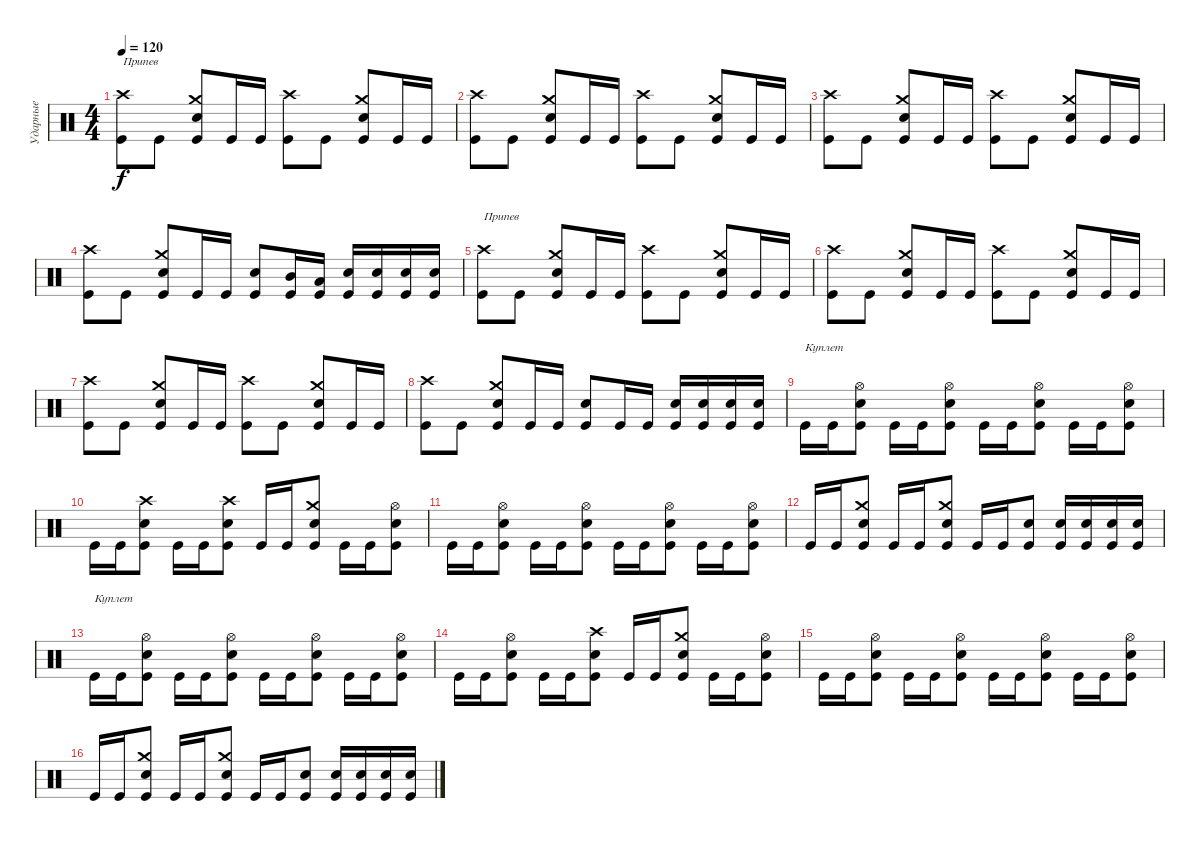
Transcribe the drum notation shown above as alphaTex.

\track ("Ударные" "Ударные") {instrument percussion}
\staff {score}
\articulation defaults
\ts (4 4)
\tempo 120
\clef neutral
\ks c
("Crash high (hit)" "Kick (hit)").8{txt "Припев" dy f} "Kick (hit)".8 ("Crash medium (hit)" "Snare (hit) 2" "Kick (hit)").8 "Kick (hit)".16 "Kick (hit)".16 ("Crash high (hit)" "Kick (hit)").8 "Kick (hit)".8 ("Crash medium (hit)" "Snare (hit) 2" "Kick (hit)").8 "Kick (hit)".16 "Kick (hit)".16 |
("Crash high (hit)" "Kick (hit)").8 "Kick (hit)".8 ("Crash medium (hit)" "Snare (hit) 2" "Kick (hit)").8 "Kick (hit)".16 "Kick (hit)".16 ("Crash high (hit)" "Kick (hit)").8 "Kick (hit)".8 ("Crash medium (hit)" "Snare (hit) 2" "Kick (hit)").8 "Kick (hit)".16 "Kick (hit)".16 |
("Crash high (hit)" "Kick (hit)").8 "Kick (hit)".8 ("Crash medium (hit)" "Snare (hit) 2" "Kick (hit)").8 "Kick (hit)".16 "Kick (hit)".16 ("Crash high (hit)" "Kick (hit)").8 "Kick (hit)".8 ("Crash medium (hit)" "Snare (hit) 2" "Kick (hit)").8 "Kick (hit)".16 "Kick (hit)".16 |
("Crash high (hit)" "Kick (hit)").8 "Kick (hit)".8 ("Crash medium (hit)" "Snare (hit) 2" "Kick (hit)").8 "Kick (hit)".16 "Kick (hit)".16 ("Snare (hit) 2" "Kick (hit)").8 ("Mid Tom (hit)" "Kick (hit)").16 ("Low Tom (hit)" "Kick (hit)").16 ("Snare (hit) 2" "Kick (hit)").16 ("Snare (hit) 2" "Kick (hit)").16 ("Snare (hit) 2" "Kick (hit)").16 ("Snare (hit) 2" "Kick (hit)").16 |
("Crash high (hit)" "Kick (hit)").8{txt "Припев"} "Kick (hit)".8 ("Crash medium (hit)" "Snare (hit) 2" "Kick (hit)").8 "Kick (hit)".16 "Kick (hit)".16 ("Crash high (hit)" "Kick (hit)").8 "Kick (hit)".8 ("Crash medium (hit)" "Snare (hit) 2" "Kick (hit)").8 "Kick (hit)".16 "Kick (hit)".16 |
("Crash high (hit)" "Kick (hit)").8 "Kick (hit)".8 ("Crash medium (hit)" "Snare (hit) 2" "Kick (hit)").8 "Kick (hit)".16 "Kick (hit)".16 ("Crash high (hit)" "Kick (hit)").8 "Kick (hit)".8 ("Crash medium (hit)" "Snare (hit) 2" "Kick (hit)").8 "Kick (hit)".16 "Kick (hit)".16 |
("Crash high (hit)" "Kick (hit)").8 "Kick (hit)".8 ("Crash medium (hit)" "Snare (hit) 2" "Kick (hit)").8 "Kick (hit)".16 "Kick (hit)".16 ("Crash high (hit)" "Kick (hit)").8 "Kick (hit)".8 ("Crash medium (hit)" "Snare (hit) 2" "Kick (hit)").8 "Kick (hit)".16 "Kick (hit)".16 |
("Crash high (hit)" "Kick (hit)").8 "Kick (hit)".8 ("Crash medium (hit)" "Snare (hit) 2" "Kick (hit)").8 "Kick (hit)".16 "Kick (hit)".16 ("Snare (hit) 2" "Kick (hit)").8 "Kick (hit)".16 "Kick (hit)".16 ("Snare (hit) 2" "Kick (hit)").16 ("Snare (hit) 2" "Kick (hit)").16 ("Snare (hit) 2" "Kick (hit)").16 ("Snare (hit) 2" "Kick (hit)").16 |
"Kick (hit)".16{txt "Куплет"} "Kick (hit)".16 ("Hi-Hat (open)" "Snare (hit) 2" "Kick (hit)").8 "Kick (hit)".16 "Kick (hit)".16 ("Hi-Hat (open)" "Snare (hit) 2" "Kick (hit)").8 "Kick (hit)".16 "Kick (hit)".16 ("Hi-Hat (open)" "Snare (hit) 2" "Kick (hit)").8 "Kick (hit)".16 "Kick (hit)".16 ("Hi-Hat (open)" "Snare (hit) 2" "Kick (hit)").8 |
"Kick (hit)".16 "Kick (hit)".16 ("Crash high (hit)" "Snare (hit) 2" "Kick (hit)").8 "Kick (hit)".16 "Kick (hit)".16 ("Crash high (hit)" "Snare (hit) 2" "Kick (hit)").8 "Kick (hit)".16 "Kick (hit)".16 ("Crash medium (hit)" "Snare (hit) 2" "Kick (hit)").8 "Kick (hit)".16 "Kick (hit)".16 ("Hi-Hat (open)" "Snare (hit) 2" "Kick (hit)").8 |
"Kick (hit)".16 "Kick (hit)".16 ("Hi-Hat (open)" "Snare (hit) 2" "Kick (hit)").8 "Kick (hit)".16 "Kick (hit)".16 ("Hi-Hat (open)" "Snare (hit) 2" "Kick (hit)").8 "Kick (hit)".16 "Kick (hit)".16 ("Hi-Hat (open)" "Snare (hit) 2" "Kick (hit)").8 "Kick (hit)".16 "Kick (hit)".16 ("Hi-Hat (open)" "Snare (hit) 2" "Kick (hit)").8 |
"Kick (hit)".16 "Kick (hit)".16 ("Crash medium (hit)" "Snare (hit) 2" "Kick (hit)").8 "Kick (hit)".16 "Kick (hit)".16 ("Crash medium (hit)" "Snare (hit) 2" "Kick (hit)").8 "Kick (hit)".16 "Kick (hit)".16 ("Snare (hit) 2" "Kick (hit)").8 ("Snare (hit) 2" "Kick (hit)").16 ("Snare (hit) 2" "Kick (hit)").16 ("Snare (hit) 2" "Kick (hit)").16 ("Snare (hit) 2" "Kick (hit)").16 |
"Kick (hit)".16{txt "Куплет"} "Kick (hit)".16 ("Hi-Hat (open)" "Snare (hit) 2" "Kick (hit)").8 "Kick (hit)".16 "Kick (hit)".16 ("Hi-Hat (open)" "Snare (hit) 2" "Kick (hit)").8 "Kick (hit)".16 "Kick (hit)".16 ("Hi-Hat (open)" "Snare (hit) 2" "Kick (hit)").8 "Kick (hit)".16 "Kick (hit)".16 ("Hi-Hat (open)" "Snare (hit) 2" "Kick (hit)").8 |
"Kick (hit)".16 "Kick (hit)".16 ("Hi-Hat (open)" "Snare (hit) 2" "Kick (hit)").8 "Kick (hit)".16 "Kick (hit)".16 ("Crash high (hit)" "Snare (hit) 2" "Kick (hit)").8 "Kick (hit)".16 "Kick (hit)".16 ("Crash medium (hit)" "Snare (hit) 2" "Kick (hit)").8 "Kick (hit)".16 "Kick (hit)".16 ("Hi-Hat (open)" "Snare (hit) 2" "Kick (hit)").8 |
"Kick (hit)".16 "Kick (hit)".16 ("Hi-Hat (open)" "Snare (hit) 2" "Kick (hit)").8 "Kick (hit)".16 "Kick (hit)".16 ("Hi-Hat (open)" "Snare (hit) 2" "Kick (hit)").8 "Kick (hit)".16 "Kick (hit)".16 ("Hi-Hat (open)" "Snare (hit) 2" "Kick (hit)").8 "Kick (hit)".16 "Kick (hit)".16 ("Hi-Hat (open)" "Snare (hit) 2" "Kick (hit)").8 |
"Kick (hit)".16 "Kick (hit)".16 ("Crash medium (hit)" "Snare (hit) 2" "Kick (hit)").8 "Kick (hit)".16 "Kick (hit)".16 ("Crash medium (hit)" "Snare (hit) 2" "Kick (hit)").8 "Kick (hit)".16 "Kick (hit)".16 ("Snare (hit) 2" "Kick (hit)").8 ("Snare (hit) 2" "Kick (hit)").16 ("Snare (hit) 2" "Kick (hit)").16 ("Snare (hit) 2" "Kick (hit)").16 ("Snare (hit) 2" "Kick (hit)").16
